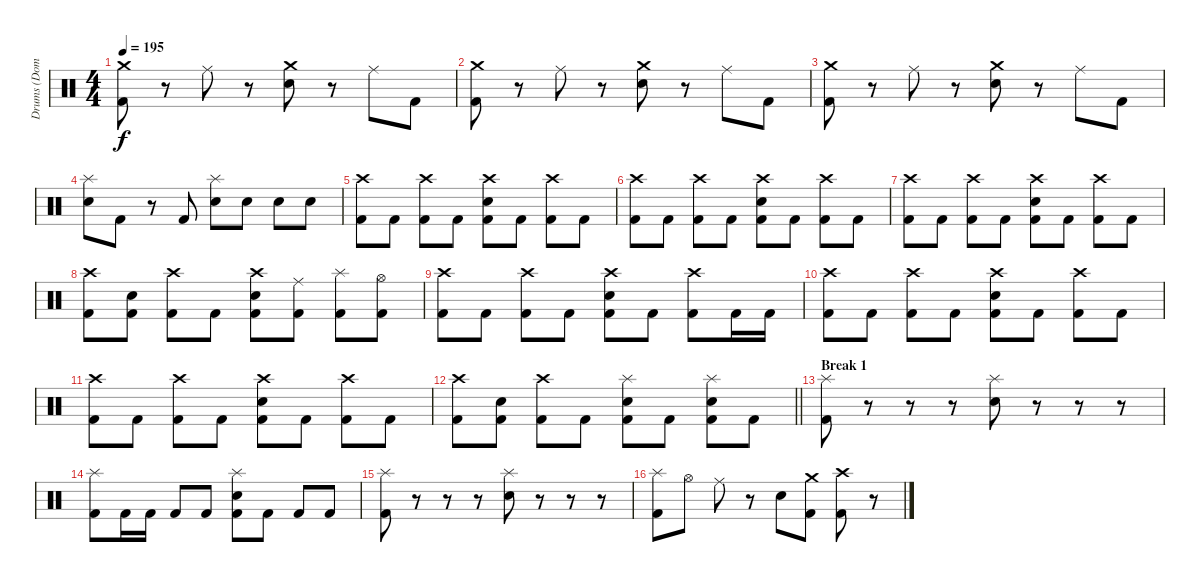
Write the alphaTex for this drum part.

\track ("Drums (Dominik)" "Drums (Dom") {instrument percussion}
\staff {score}
\articulation defaults
\ts (4 4)
\tempo 195
\clef neutral
\ks c
("Crash medium (hit)" "Kick (hit) 2").8{dy f} r.8 "Ride (middle)".8 r.8 ("Crash medium (hit)" "Electric Snare (hit)").8 r.8 "Ride (middle)".8 "Kick (hit) 2".8 |
("Crash medium (hit)" "Kick (hit) 2").8 r.8 "Ride (middle)".8 r.8 ("Crash medium (hit)" "Electric Snare (hit)").8 r.8 "Ride (middle)".8 "Kick (hit) 2".8 |
("Crash medium (hit)" "Kick (hit) 2").8 r.8 "Ride (middle)".8 r.8 ("Crash medium (hit)" "Electric Snare (hit)").8 r.8 "Ride (middle)".8 "Kick (hit) 2".8 |
("Splash (hit)" "Electric Snare (hit)").8 "Kick (hit) 2".8 r.8 "Kick (hit) 2".8 ("Splash (hit)" "Electric Snare (hit)").8 "Electric Snare (hit)".8 "Electric Snare (hit)".8 "Electric Snare (hit)".8 |
("Crash high (hit)" "Kick (hit) 2").8 "Kick (hit) 2".8 ("Crash high (hit)" "Kick (hit) 2").8 "Kick (hit) 2".8 ("Crash high (hit)" "Electric Snare (hit)" "Kick (hit) 2").8 "Kick (hit) 2".8 ("Crash high (hit)" "Kick (hit) 2").8 "Kick (hit) 2".8 |
("Crash high (hit)" "Kick (hit) 2").8 "Kick (hit) 2".8 ("Crash high (hit)" "Kick (hit) 2").8 "Kick (hit) 2".8 ("Crash high (hit)" "Electric Snare (hit)" "Kick (hit) 2").8 "Kick (hit) 2".8 ("Crash high (hit)" "Kick (hit) 2").8 "Kick (hit) 2".8 |
("Crash high (hit)" "Kick (hit) 2").8 "Kick (hit) 2".8 ("Crash high (hit)" "Kick (hit) 2").8 "Kick (hit) 2".8 ("Crash high (hit)" "Electric Snare (hit)" "Kick (hit) 2").8 "Kick (hit) 2".8 ("Crash high (hit)" "Kick (hit) 2").8 "Kick (hit) 2".8 |
("Crash high (hit)" "Kick (hit) 2").8 ("Electric Snare (hit)" "Kick (hit) 2").8 ("Crash high (hit)" "Kick (hit) 2").8 "Kick (hit) 2".8 ("Crash high (hit)" "Electric Snare (hit)" "Kick (hit) 2").8 ("Ride (middle)" "Kick (hit) 2").8 ("Splash (hit)" "Kick (hit) 2").8 ("Hi-Hat (open)" "Kick (hit) 2").8 |
("Crash high (hit)" "Kick (hit) 2").8 "Kick (hit) 2".8 ("Crash high (hit)" "Kick (hit) 2").8 "Kick (hit) 2".8 ("Crash high (hit)" "Electric Snare (hit)" "Kick (hit) 2").8 "Kick (hit) 2".8 ("Crash high (hit)" "Kick (hit) 2").8 "Kick (hit) 2".16 "Kick (hit) 2".16 |
("Crash high (hit)" "Kick (hit) 2").8 "Kick (hit) 2".8 ("Crash high (hit)" "Kick (hit) 2").8 "Kick (hit) 2".8 ("Crash high (hit)" "Electric Snare (hit)" "Kick (hit) 2").8 "Kick (hit) 2".8 ("Crash high (hit)" "Kick (hit) 2").8 "Kick (hit) 2".8 |
("Crash high (hit)" "Kick (hit) 2").8 "Kick (hit) 2".8 ("Crash high (hit)" "Kick (hit) 2").8 "Kick (hit) 2".8 ("Crash high (hit)" "Electric Snare (hit)" "Kick (hit) 2").8 "Kick (hit) 2".8 ("Crash high (hit)" "Kick (hit) 2").8 "Kick (hit) 2".8 |
\barLineRight lightlight
("Crash high (hit)" "Kick (hit) 2").8 ("Electric Snare (hit)" "Kick (hit) 2").8 ("Crash high (hit)" "Kick (hit) 2").8 "Kick (hit) 2".8 ("Splash (hit)" "Electric Snare (hit)" "Kick (hit) 2").8 "Kick (hit) 2".8 ("Splash (hit)" "Electric Snare (hit)" "Kick (hit) 2").8 "Kick (hit) 2".8 |
\section ("" "Break 1")
("Splash (hit)" "Kick (hit) 2").8 r.8 r.8 r.8 ("Splash (hit)" "Electric Snare (hit)").8 r.8 r.8 r.8 |
("Splash (hit)" "Kick (hit) 2").8 "Kick (hit) 2".16 "Kick (hit) 2".16 "Kick (hit) 2".8 "Kick (hit) 2".8 ("Splash (hit)" "Electric Snare (hit)" "Kick (hit) 2").8 "Kick (hit) 2".8 "Kick (hit) 2".8 "Kick (hit) 2".8 |
("Splash (hit)" "Kick (hit) 2").8 r.8 r.8 r.8 ("Splash (hit)" "Electric Snare (hit)").8 r.8 r.8 r.8 |
("Splash (hit)" "Kick (hit) 2").8 "Hi-Hat (open)".8 "Ride (middle)".8 r.8 "Electric Snare (hit)".8 ("Crash medium (hit)" "Kick (hit) 2").8 ("Crash high (hit)" "Kick (hit) 2").8 r.8
